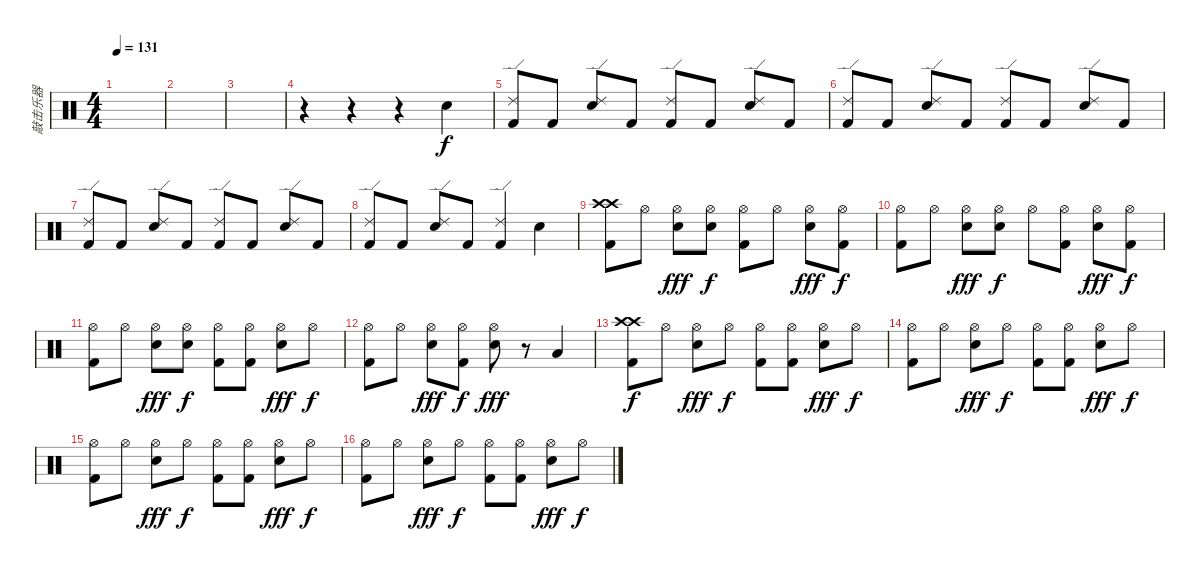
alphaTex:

\track ("敲击乐器" "敲击乐器") {instrument percussion}
\staff {score}
\articulation defaults
\ts (4 4)
\tempo 131
\clef neutral
\ks c
|
|
|
r.4 r.4 r.4 "Metronome (bell)".4 |
("Ride (edge) 2" "Kick (hit) 2").8 "Kick (hit) 2".8 ("Ride (edge) 2" "Electric Snare (hit)").8 "Kick (hit) 2".8 ("Ride (edge) 2" "Kick (hit) 2").8 "Kick (hit) 2".8 ("Ride (edge) 2" "Electric Snare (hit)").8 "Kick (hit) 2".8 |
("Ride (edge) 2" "Kick (hit) 2").8 "Kick (hit) 2".8 ("Ride (edge) 2" "Electric Snare (hit)").8 "Kick (hit) 2".8 ("Ride (edge) 2" "Kick (hit) 2").8 "Kick (hit) 2".8 ("Ride (edge) 2" "Electric Snare (hit)").8 "Kick (hit) 2".8 |
("Ride (edge) 2" "Kick (hit) 2").8 "Kick (hit) 2".8 ("Ride (edge) 2" "Electric Snare (hit)").8 "Kick (hit) 2".8 ("Ride (edge) 2" "Kick (hit) 2").8 "Kick (hit) 2".8 ("Ride (edge) 2" "Electric Snare (hit)").8 "Kick (hit) 2".8 |
("Ride (edge) 2" "Kick (hit) 2").8 "Kick (hit) 2".8 ("Ride (edge) 2" "Electric Snare (hit)").8 "Kick (hit) 2".8 ("Ride (edge) 2" "Kick (hit) 2").4 "Metronome (bell)".4 |
("Crash high (hit)" "Kick (hit) 2" "Crash high (hit)").8 "Hi-Hat (open)".8 ("Hi-Hat (open)" "Electric Snare (hit)").8{dy fff} ("Hi-Hat (open)" "Electric Snare (hit)").8{dy f} ("Hi-Hat (open)" "Kick (hit) 2").8 "Hi-Hat (open)".8 ("Hi-Hat (open)" "Electric Snare (hit)").8{dy fff} ("Hi-Hat (open)" "Kick (hit) 2").8{dy f} |
("Hi-Hat (open)" "Kick (hit) 2").8 "Hi-Hat (open)".8 ("Hi-Hat (open)" "Electric Snare (hit)").8{dy fff} ("Hi-Hat (open)" "Electric Snare (hit)").8{dy f} "Hi-Hat (open)".8 ("Hi-Hat (open)" "Kick (hit) 2").8 ("Hi-Hat (open)" "Electric Snare (hit)").8{dy fff} ("Hi-Hat (open)" "Kick (hit) 2").8{dy f} |
("Hi-Hat (open)" "Kick (hit) 2").8 "Hi-Hat (open)".8 ("Hi-Hat (open)" "Electric Snare (hit)").8{dy fff} ("Hi-Hat (open)" "Electric Snare (hit)").8{dy f} ("Hi-Hat (open)" "Kick (hit) 2").8 ("Hi-Hat (open)" "Kick (hit) 2").8 ("Hi-Hat (open)" "Electric Snare (hit)").8{dy fff} "Hi-Hat (open)".8{dy f} |
("Hi-Hat (open)" "Kick (hit) 2").8 "Hi-Hat (open)".8 ("Hi-Hat (open)" "Electric Snare (hit)").8{dy fff} ("Hi-Hat (open)" "Kick (hit) 2").8{dy f} ("Hi-Hat (open)" "Electric Snare (hit)").8{dy fff} r.8 "Low Tom (hit)".4 |
("Crash high (hit)" "Kick (hit) 2" "Crash high (hit)").8{dy f} "Hi-Hat (open)".8 ("Hi-Hat (open)" "Electric Snare (hit)").8{dy fff} "Hi-Hat (open)".8{dy f} ("Hi-Hat (open)" "Kick (hit) 2").8 ("Hi-Hat (open)" "Kick (hit) 2").8 ("Hi-Hat (open)" "Electric Snare (hit)").8{dy fff} "Hi-Hat (open)".8{dy f} |
("Hi-Hat (open)" "Kick (hit) 2").8 "Hi-Hat (open)".8 ("Hi-Hat (open)" "Electric Snare (hit)").8{dy fff} "Hi-Hat (open)".8{dy f} ("Hi-Hat (open)" "Kick (hit) 2").8 ("Hi-Hat (open)" "Kick (hit) 2").8 ("Hi-Hat (open)" "Electric Snare (hit)").8{dy fff} "Hi-Hat (open)".8{dy f} |
("Hi-Hat (open)" "Kick (hit) 2").8 "Hi-Hat (open)".8 ("Hi-Hat (open)" "Electric Snare (hit)").8{dy fff} "Hi-Hat (open)".8{dy f} ("Hi-Hat (open)" "Kick (hit) 2").8 ("Hi-Hat (open)" "Kick (hit) 2").8 ("Hi-Hat (open)" "Electric Snare (hit)").8{dy fff} "Hi-Hat (open)".8{dy f} |
("Hi-Hat (open)" "Kick (hit) 2").8 "Hi-Hat (open)".8 ("Hi-Hat (open)" "Electric Snare (hit)").8{dy fff} "Hi-Hat (open)".8{dy f} ("Hi-Hat (open)" "Kick (hit) 2").8 ("Hi-Hat (open)" "Kick (hit) 2").8 ("Hi-Hat (open)" "Electric Snare (hit)").8{dy fff} "Hi-Hat (open)".8{dy f}
